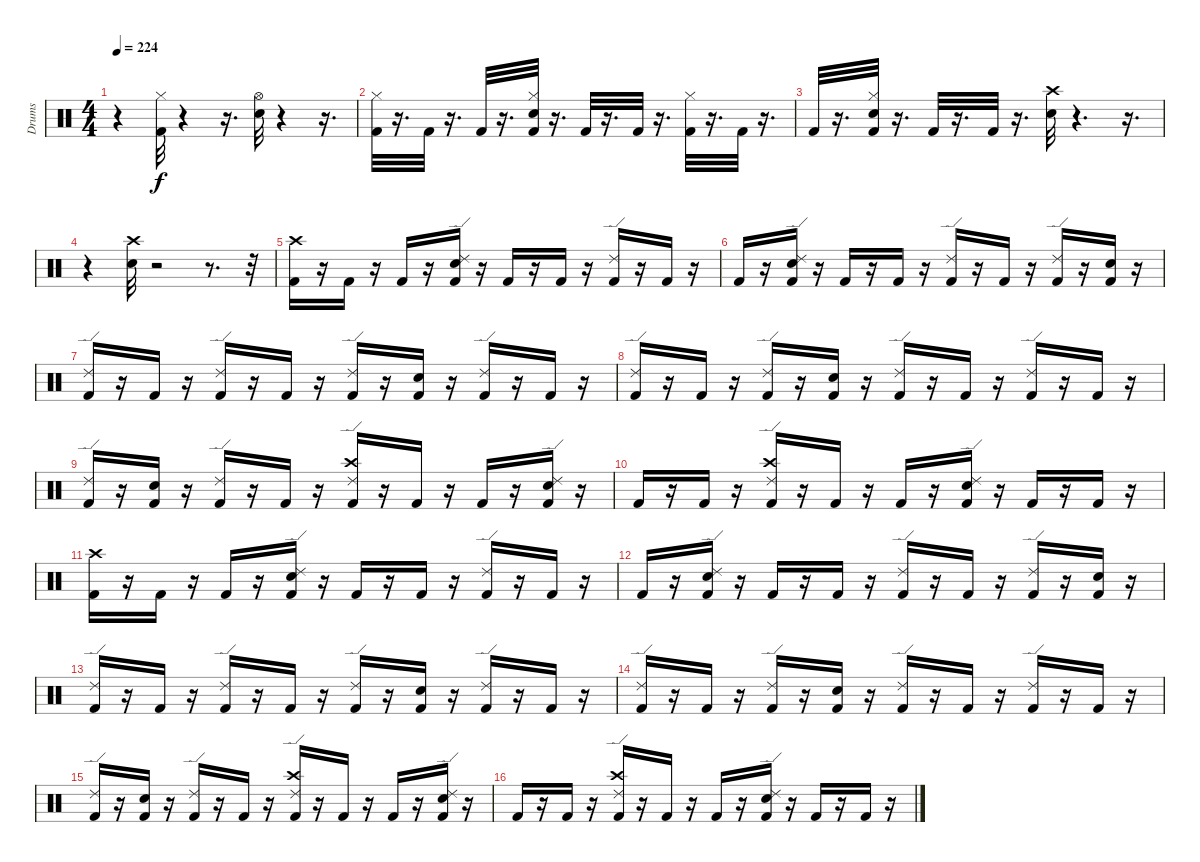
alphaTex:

\track ("Drums" "Drums") {instrument percussion}
\staff {score}
\articulation defaults
\ts (4 4)
\tempo 224
\clef neutral
\ks c
r.4{dy f} ("Kick (hit) 2" "Hi-Hat (closed)").32 r.4 r.16{d} ("Hi-Hat (open)" "Snare (hit) 2").32 r.4 r.16{d} |
("Kick (hit) 2" "Hi-Hat (closed)").32 r.16{d} "Kick (hit) 2".32 r.16{d} "Kick (hit) 2".32 r.16{d} ("Snare (hit) 2" "Kick (hit) 2" "Hi-Hat (closed)").32 r.16{d} "Kick (hit) 2".32 r.16{d} "Kick (hit) 2".32 r.16{d} ("Kick (hit) 2" "Hi-Hat (closed)").32 r.16{d} "Kick (hit) 2".32 r.16{d} |
"Kick (hit) 2".32 r.16{d} ("Snare (hit) 2" "Kick (hit) 2" "Hi-Hat (closed)").32 r.16{d} "Kick (hit) 2".32 r.16{d} "Kick (hit) 2".32 r.16{d} ("Snare (hit) 2" "Crash high (hit)").32 r.4{d} r.16{d} |
r.4 ("Snare (hit) 2" "Crash high (hit)").32 r.2 r.8{d} r.32 |
("Crash high (hit)" "Kick (hit) 2").16 r.16 "Kick (hit) 2".16 r.16 "Kick (hit) 2".16 r.16 ("Snare (hit) 2" "Ride (edge) 2" "Kick (hit) 2").16 r.16 "Kick (hit) 2".16 r.16 "Kick (hit) 2".16 r.16 ("Ride (edge) 2" "Kick (hit) 2").16 r.16 "Kick (hit) 2".16 r.16 |
"Kick (hit) 2".16 r.16 ("Ride (edge) 2" "Kick (hit) 2" "Snare (hit) 2").16 r.16 "Kick (hit) 2".16 r.16 "Kick (hit) 2".16 r.16 ("Ride (edge) 2" "Kick (hit) 2").16 r.16 "Kick (hit) 2".16 r.16 ("Ride (edge) 2" "Kick (hit) 2").16 r.16 ("Snare (hit) 2" "Kick (hit) 2").16 r.16 |
("Ride (edge) 2" "Kick (hit) 2").16 r.16 "Kick (hit) 2".16 r.16 ("Ride (edge) 2" "Kick (hit) 2").16 r.16 "Kick (hit) 2".16 r.16 ("Ride (edge) 2" "Kick (hit) 2").16 r.16 ("Kick (hit) 2" "Snare (hit) 2").16 r.16 ("Ride (edge) 2" "Kick (hit) 2").16 r.16 "Kick (hit) 2".16 r.16 |
("Ride (edge) 2" "Kick (hit) 2").16 r.16 "Kick (hit) 2".16 r.16 ("Ride (edge) 2" "Kick (hit) 2").16 r.16 ("Snare (hit) 2" "Kick (hit) 2").16 r.16 ("Ride (edge) 2" "Kick (hit) 2").16 r.16 "Kick (hit) 2".16 r.16 ("Ride (edge) 2" "Kick (hit) 2").16 r.16 "Kick (hit) 2".16 r.16 |
("Ride (edge) 2" "Kick (hit) 2").16 r.16 ("Kick (hit) 2" "Snare (hit) 2").16 r.16 ("Ride (edge) 2" "Kick (hit) 2").16 r.16 "Kick (hit) 2".16 r.16 ("Ride (edge) 2" "Crash high (hit)" "Kick (hit) 2").16 r.16 "Kick (hit) 2".16 r.16 "Kick (hit) 2".16 r.16 ("Ride (edge) 2" "Snare (hit) 2" "Kick (hit) 2").16 r.16 |
"Kick (hit) 2".16 r.16 "Kick (hit) 2".16 r.16 ("Ride (edge) 2" "Crash high (hit)" "Kick (hit) 2").16 r.16 "Kick (hit) 2".16 r.16 "Kick (hit) 2".16 r.16 ("Ride (edge) 2" "Snare (hit) 2" "Kick (hit) 2").16 r.16 "Kick (hit) 2".16 r.16 "Kick (hit) 2".16 r.16 |
("Crash high (hit)" "Kick (hit) 2").16 r.16 "Kick (hit) 2".16 r.16 "Kick (hit) 2".16 r.16 ("Snare (hit) 2" "Ride (edge) 2" "Kick (hit) 2").16 r.16 "Kick (hit) 2".16 r.16 "Kick (hit) 2".16 r.16 ("Ride (edge) 2" "Kick (hit) 2").16 r.16 "Kick (hit) 2".16 r.16 |
"Kick (hit) 2".16 r.16 ("Ride (edge) 2" "Kick (hit) 2" "Snare (hit) 2").16 r.16 "Kick (hit) 2".16 r.16 "Kick (hit) 2".16 r.16 ("Ride (edge) 2" "Kick (hit) 2").16 r.16 "Kick (hit) 2".16 r.16 ("Ride (edge) 2" "Kick (hit) 2").16 r.16 ("Snare (hit) 2" "Kick (hit) 2").16 r.16 |
("Ride (edge) 2" "Kick (hit) 2").16 r.16 "Kick (hit) 2".16 r.16 ("Ride (edge) 2" "Kick (hit) 2").16 r.16 "Kick (hit) 2".16 r.16 ("Ride (edge) 2" "Kick (hit) 2").16 r.16 ("Kick (hit) 2" "Snare (hit) 2").16 r.16 ("Ride (edge) 2" "Kick (hit) 2").16 r.16 "Kick (hit) 2".16 r.16 |
("Ride (edge) 2" "Kick (hit) 2").16 r.16 "Kick (hit) 2".16 r.16 ("Ride (edge) 2" "Kick (hit) 2").16 r.16 ("Snare (hit) 2" "Kick (hit) 2").16 r.16 ("Ride (edge) 2" "Kick (hit) 2").16 r.16 "Kick (hit) 2".16 r.16 ("Ride (edge) 2" "Kick (hit) 2").16 r.16 "Kick (hit) 2".16 r.16 |
("Ride (edge) 2" "Kick (hit) 2").16 r.16 ("Kick (hit) 2" "Snare (hit) 2").16 r.16 ("Ride (edge) 2" "Kick (hit) 2").16 r.16 "Kick (hit) 2".16 r.16 ("Ride (edge) 2" "Crash high (hit)" "Kick (hit) 2").16 r.16 "Kick (hit) 2".16 r.16 "Kick (hit) 2".16 r.16 ("Ride (edge) 2" "Snare (hit) 2" "Kick (hit) 2").16 r.16 |
"Kick (hit) 2".16 r.16 "Kick (hit) 2".16 r.16 ("Ride (edge) 2" "Crash high (hit)" "Kick (hit) 2").16 r.16 "Kick (hit) 2".16 r.16 "Kick (hit) 2".16 r.16 ("Ride (edge) 2" "Snare (hit) 2" "Kick (hit) 2").16 r.16 "Kick (hit) 2".16 r.16 "Kick (hit) 2".16 r.16
